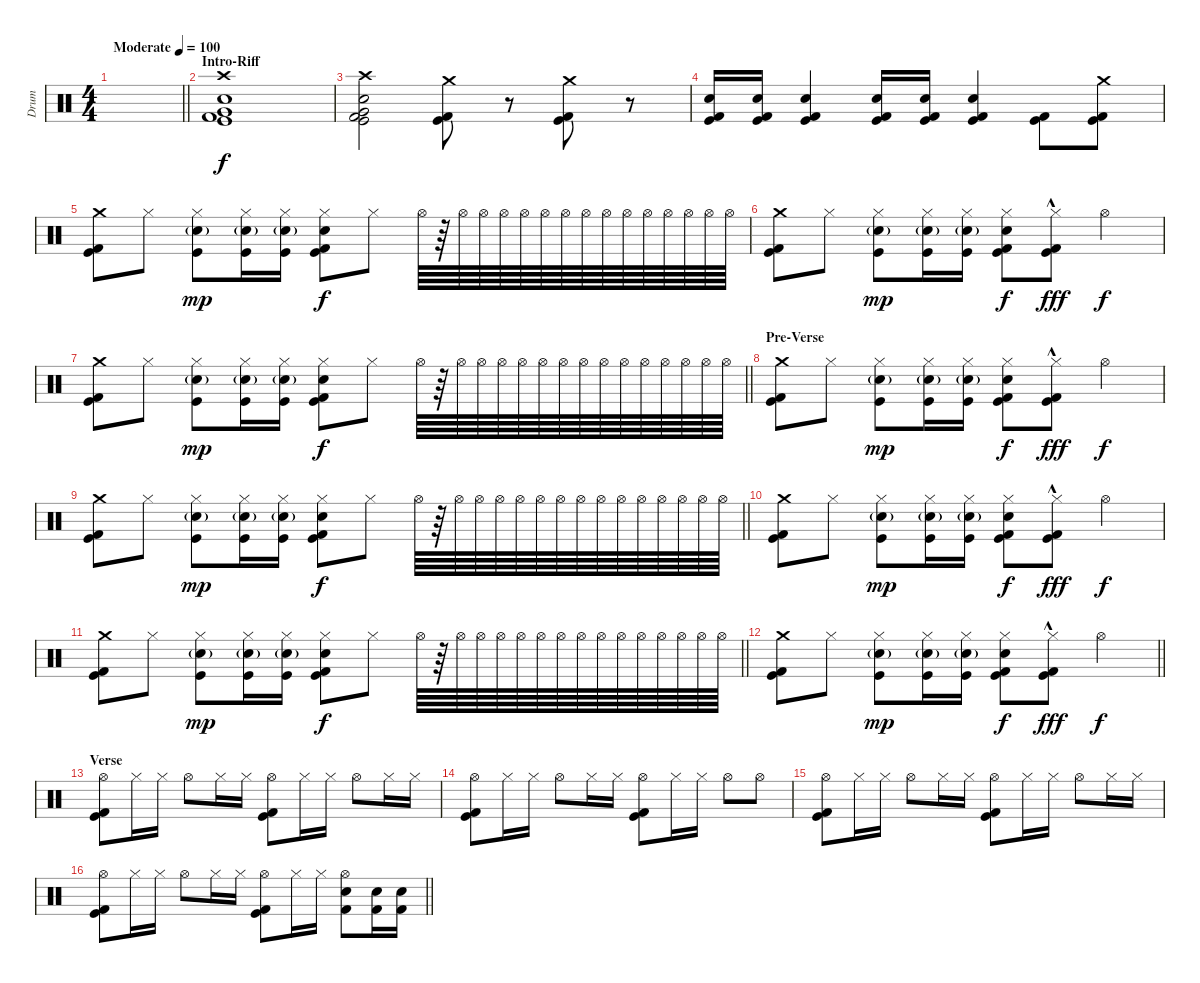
\track ("Drum" "Drum") {instrument percussion}
\staff {score}
\articulation defaults
\ts (4 4)
\tempo (100 "Moderate")
\clef neutral
\barLineRight lightlight
\ks c
|
\section ("" "Intro-Riff")
("Crash high (hit)" "Snare (hit) 2" "Very Low Tom (hit)" "Kick (hit) 2" "Kick (hit)").1 |
("Crash high (hit)" "Snare (hit) 2" "Very Low Tom (hit)" "Kick (hit) 2" "Kick (hit)").2 ("Crash medium (hit)" "Kick (hit) 2" "Kick (hit)").8 r.8 ("Crash medium (hit)" "Kick (hit) 2" "Kick (hit)").8 r.8 |
("Electric Snare (hit)" "Kick (hit) 2" "Kick (hit)").16 ("Electric Snare (hit)" "Kick (hit) 2" "Kick (hit)").16 ("Electric Snare (hit)" "Kick (hit) 2" "Kick (hit)").4 ("Electric Snare (hit)" "Kick (hit) 2" "Kick (hit)").16 ("Electric Snare (hit)" "Kick (hit) 2" "Kick (hit)").16 ("Electric Snare (hit)" "Kick (hit) 2" "Kick (hit)").4 ("Kick (hit) 2" "Kick (hit)").8 ("Crash medium (hit)" "Kick (hit) 2" "Kick (hit)").8 |
("Crash medium (hit)" "Kick (hit) 2" "Kick (hit)").8 "Hi-Hat (closed)".8 ("Hi-Hat (closed)" "Electric Snare (hit)"{g} "Kick (hit)").8{dy mp} ("Hi-Hat (closed)" "Electric Snare (hit)"{g} "Kick (hit)").16 ("Hi-Hat (closed)" "Electric Snare (hit)"{g} "Kick (hit)").16 ("Hi-Hat (closed)" "Snare (hit) 2" "Kick (hit) 2" "Kick (hit)").8{dy f} "Hi-Hat (closed)".8 "Hi-Hat (open)".64 r.64 "Hi-Hat (open)".64 "Hi-Hat (open)".64 "Hi-Hat (open)".64 "Hi-Hat (open)".64 "Hi-Hat (open)".64 "Hi-Hat (open)".64 "Hi-Hat (open)".64 "Hi-Hat (open)".64 "Hi-Hat (open)".64 "Hi-Hat (open)".64 "Hi-Hat (open)".64 "Hi-Hat (open)".64 "Hi-Hat (open)".64 "Hi-Hat (open)".64 |
("Crash medium (hit)" "Kick (hit) 2" "Kick (hit)").8 "Hi-Hat (closed)".8 ("Hi-Hat (closed)" "Electric Snare (hit)"{g} "Kick (hit)").8{dy mp} ("Hi-Hat (closed)" "Electric Snare (hit)"{g} "Kick (hit)").16 ("Hi-Hat (closed)" "Electric Snare (hit)"{g} "Kick (hit)").16 ("Hi-Hat (closed)" "Snare (hit) 2" "Kick (hit) 2" "Kick (hit)").8{dy f} ("Hi-Hat (closed)"{hac} "Kick (hit) 2" "Kick (hit)").8{dy fff} "Hi-Hat (open)".4{dy f} |
\barLineRight lightlight
("Crash medium (hit)" "Kick (hit) 2" "Kick (hit)").8 "Hi-Hat (closed)".8 ("Hi-Hat (closed)" "Electric Snare (hit)"{g} "Kick (hit)").8{dy mp} ("Hi-Hat (closed)" "Electric Snare (hit)"{g} "Kick (hit)").16 ("Hi-Hat (closed)" "Electric Snare (hit)"{g} "Kick (hit)").16 ("Hi-Hat (closed)" "Snare (hit) 2" "Kick (hit) 2" "Kick (hit)").8{dy f} "Hi-Hat (closed)".8 "Hi-Hat (open)".64 r.64 "Hi-Hat (open)".64 "Hi-Hat (open)".64 "Hi-Hat (open)".64 "Hi-Hat (open)".64 "Hi-Hat (open)".64 "Hi-Hat (open)".64 "Hi-Hat (open)".64 "Hi-Hat (open)".64 "Hi-Hat (open)".64 "Hi-Hat (open)".64 "Hi-Hat (open)".64 "Hi-Hat (open)".64 "Hi-Hat (open)".64 "Hi-Hat (open)".64 |
\section ("" "Pre-Verse")
("Crash medium (hit)" "Kick (hit) 2" "Kick (hit)").8 "Hi-Hat (closed)".8 ("Hi-Hat (closed)" "Electric Snare (hit)"{g} "Kick (hit)").8{dy mp} ("Hi-Hat (closed)" "Electric Snare (hit)"{g} "Kick (hit)").16 ("Hi-Hat (closed)" "Electric Snare (hit)"{g} "Kick (hit)").16 ("Hi-Hat (closed)" "Snare (hit) 2" "Kick (hit) 2" "Kick (hit)").8{dy f} ("Hi-Hat (closed)"{hac} "Kick (hit) 2" "Kick (hit)").8{dy fff} "Hi-Hat (open)".4{dy f} |
\barLineRight lightlight
("Crash medium (hit)" "Kick (hit) 2" "Kick (hit)").8 "Hi-Hat (closed)".8 ("Hi-Hat (closed)" "Electric Snare (hit)"{g} "Kick (hit)").8{dy mp} ("Hi-Hat (closed)" "Electric Snare (hit)"{g} "Kick (hit)").16 ("Hi-Hat (closed)" "Electric Snare (hit)"{g} "Kick (hit)").16 ("Hi-Hat (closed)" "Snare (hit) 2" "Kick (hit) 2" "Kick (hit)").8{dy f} "Hi-Hat (closed)".8 "Hi-Hat (open)".64 r.64 "Hi-Hat (open)".64 "Hi-Hat (open)".64 "Hi-Hat (open)".64 "Hi-Hat (open)".64 "Hi-Hat (open)".64 "Hi-Hat (open)".64 "Hi-Hat (open)".64 "Hi-Hat (open)".64 "Hi-Hat (open)".64 "Hi-Hat (open)".64 "Hi-Hat (open)".64 "Hi-Hat (open)".64 "Hi-Hat (open)".64 "Hi-Hat (open)".64 |
("Crash medium (hit)" "Kick (hit) 2" "Kick (hit)").8 "Hi-Hat (closed)".8 ("Hi-Hat (closed)" "Electric Snare (hit)"{g} "Kick (hit)").8{dy mp} ("Hi-Hat (closed)" "Electric Snare (hit)"{g} "Kick (hit)").16 ("Hi-Hat (closed)" "Electric Snare (hit)"{g} "Kick (hit)").16 ("Hi-Hat (closed)" "Snare (hit) 2" "Kick (hit) 2" "Kick (hit)").8{dy f} ("Hi-Hat (closed)"{hac} "Kick (hit) 2" "Kick (hit)").8{dy fff} "Hi-Hat (open)".4{dy f} |
\barLineRight lightlight
("Crash medium (hit)" "Kick (hit) 2" "Kick (hit)").8 "Hi-Hat (closed)".8 ("Hi-Hat (closed)" "Electric Snare (hit)"{g} "Kick (hit)").8{dy mp} ("Hi-Hat (closed)" "Electric Snare (hit)"{g} "Kick (hit)").16 ("Hi-Hat (closed)" "Electric Snare (hit)"{g} "Kick (hit)").16 ("Hi-Hat (closed)" "Snare (hit) 2" "Kick (hit) 2" "Kick (hit)").8{dy f} "Hi-Hat (closed)".8 "Hi-Hat (open)".64 r.64 "Hi-Hat (open)".64 "Hi-Hat (open)".64 "Hi-Hat (open)".64 "Hi-Hat (open)".64 "Hi-Hat (open)".64 "Hi-Hat (open)".64 "Hi-Hat (open)".64 "Hi-Hat (open)".64 "Hi-Hat (open)".64 "Hi-Hat (open)".64 "Hi-Hat (open)".64 "Hi-Hat (open)".64 "Hi-Hat (open)".64 "Hi-Hat (open)".64 |
\barLineRight lightlight
("Crash medium (hit)" "Kick (hit) 2" "Kick (hit)").8 "Hi-Hat (closed)".8 ("Hi-Hat (closed)" "Electric Snare (hit)"{g} "Kick (hit)").8{dy mp} ("Hi-Hat (closed)" "Electric Snare (hit)"{g} "Kick (hit)").16 ("Hi-Hat (closed)" "Electric Snare (hit)"{g} "Kick (hit)").16 ("Hi-Hat (closed)" "Snare (hit) 2" "Kick (hit) 2" "Kick (hit)").8{dy f} ("Hi-Hat (closed)"{hac} "Kick (hit) 2" "Kick (hit)").8{dy fff} "Hi-Hat (open)".4{dy f} |
\section ("" "Verse")
("Hi-Hat (open)" "Kick (hit) 2" "Kick (hit)").8 "Hi-Hat (closed)".16 "Hi-Hat (closed)".16 "Hi-Hat (open)".8 "Hi-Hat (closed)".16 "Hi-Hat (closed)".16 ("Hi-Hat (open)" "Kick (hit) 2" "Kick (hit)").8 "Hi-Hat (closed)".16 "Hi-Hat (closed)".16 "Hi-Hat (open)".8 "Hi-Hat (closed)".16 "Hi-Hat (closed)".16 |
("Hi-Hat (open)" "Kick (hit) 2" "Kick (hit)").8 "Hi-Hat (closed)".16 "Hi-Hat (closed)".16 "Hi-Hat (open)".8 "Hi-Hat (closed)".16 "Hi-Hat (closed)".16 ("Hi-Hat (open)" "Kick (hit) 2" "Kick (hit)").8 "Hi-Hat (closed)".16 "Hi-Hat (closed)".16 "Hi-Hat (open)".8 "Hi-Hat (open)".8 |
("Hi-Hat (open)" "Kick (hit) 2" "Kick (hit)").8 "Hi-Hat (closed)".16 "Hi-Hat (closed)".16 "Hi-Hat (open)".8 "Hi-Hat (closed)".16 "Hi-Hat (closed)".16 ("Hi-Hat (open)" "Kick (hit) 2" "Kick (hit)").8 "Hi-Hat (closed)".16 "Hi-Hat (closed)".16 "Hi-Hat (open)".8 "Hi-Hat (closed)".16 "Hi-Hat (closed)".16 |
\barLineRight lightlight
("Hi-Hat (open)" "Kick (hit) 2" "Kick (hit)").8 "Hi-Hat (closed)".16 "Hi-Hat (closed)".16 "Hi-Hat (open)".8 "Hi-Hat (closed)".16 "Hi-Hat (closed)".16 ("Hi-Hat (open)" "Kick (hit) 2" "Kick (hit)").8 "Hi-Hat (closed)".16 "Hi-Hat (closed)".16 ("Hi-Hat (open)" "Electric Snare (hit)" "Kick (hit) 2").8 ("Electric Snare (hit)" "Kick (hit) 2").16 ("Electric Snare (hit)" "Kick (hit) 2").16
